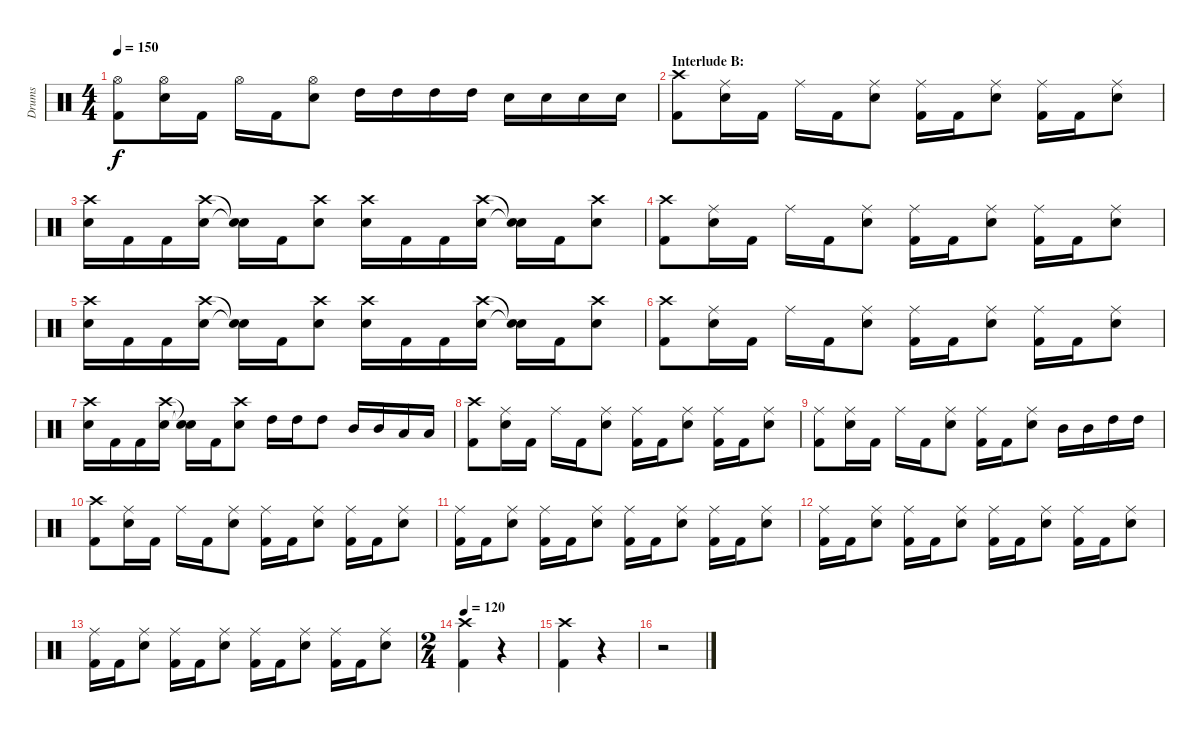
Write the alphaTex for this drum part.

\track ("Drums" "Drums") {instrument percussion}
\staff {score}
\articulation defaults
\ts (4 4)
\tempo 150
\clef neutral
\ks c
("Hi-Hat (open)" "Kick (hit) 2").8{dy f} ("Hi-Hat (open)" "Snare (hit) 2").16 "Kick (hit) 2".16 "Hi-Hat (open)".16 "Kick (hit) 2".16 ("Hi-Hat (open)" "Snare (hit) 2").8 "High Tom (hit)".16 "High Tom (hit)".16 "High Tom (hit)".16 "High Tom (hit)".16 "Snare (hit) 2".16 "Snare (hit) 2".16 "Snare (hit) 2".16 "Snare (hit) 2".16 |
\section ("" "Interlude B:")
("Crash high (hit)" "Kick (hit) 2").8 ("Ride (middle)" "Snare (hit) 2").16 "Kick (hit) 2".16 "Ride (middle)".16 "Kick (hit) 2".16 ("Ride (middle)" "Snare (hit) 2").8 ("Ride (middle)" "Kick (hit) 2").16 "Kick (hit) 2".16 ("Ride (middle)" "Snare (hit) 2").8 ("Ride (middle)" "Kick (hit) 2").16 "Kick (hit) 2".16 ("Ride (middle)" "Snare (hit) 2").8 |
("Crash high (hit)" "Snare (hit) 2").16 "Kick (hit) 2".16 "Kick (hit) 2".16 ("Crash high (hit)" "Snare (hit) 2").16 ("Snare (hit)"{t} "Snare (hit)"{t}).16 "Kick (hit) 2".16 ("Crash high (hit)" "Snare (hit) 2").8 ("Crash high (hit)" "Snare (hit) 2").16 "Kick (hit) 2".16 "Kick (hit) 2".16 ("Crash high (hit)" "Snare (hit) 2").16 ("Snare (hit)"{t} "Snare (hit)"{t}).16 "Kick (hit) 2".16 ("Crash high (hit)" "Snare (hit) 2").8 |
("Crash high (hit)" "Kick (hit) 2").8 ("Ride (middle)" "Snare (hit) 2").16 "Kick (hit) 2".16 "Ride (middle)".16 "Kick (hit) 2".16 ("Ride (middle)" "Snare (hit) 2").8 ("Ride (middle)" "Kick (hit) 2").16 "Kick (hit) 2".16 ("Ride (middle)" "Snare (hit) 2").8 ("Ride (middle)" "Kick (hit) 2").16 "Kick (hit) 2".16 ("Ride (middle)" "Snare (hit) 2").8 |
("Crash high (hit)" "Snare (hit) 2").16 "Kick (hit) 2".16 "Kick (hit) 2".16 ("Crash high (hit)" "Snare (hit) 2").16 ("Snare (hit)"{t} "Snare (hit)"{t}).16 "Kick (hit) 2".16 ("Crash high (hit)" "Snare (hit) 2").8 ("Crash high (hit)" "Snare (hit) 2").16 "Kick (hit) 2".16 "Kick (hit) 2".16 ("Crash high (hit)" "Snare (hit) 2").16 ("Snare (hit)"{t} "Snare (hit)"{t}).16 "Kick (hit) 2".16 ("Crash high (hit)" "Snare (hit) 2").8 |
("Crash high (hit)" "Kick (hit) 2").8 ("Ride (middle)" "Snare (hit) 2").16 "Kick (hit) 2".16 "Ride (middle)".16 "Kick (hit) 2".16 ("Ride (middle)" "Snare (hit) 2").8 ("Ride (middle)" "Kick (hit) 2").16 "Kick (hit) 2".16 ("Ride (middle)" "Snare (hit) 2").8 ("Ride (middle)" "Kick (hit) 2").16 "Kick (hit) 2".16 ("Ride (middle)" "Snare (hit) 2").8 |
("Crash high (hit)" "Snare (hit) 2").16 "Kick (hit) 2".16 "Kick (hit) 2".16 ("Crash high (hit)" "Snare (hit) 2").16 ("Snare (hit)"{t} "Snare (hit)"{t}).16 "Kick (hit) 2".16 ("Crash high (hit)" "Snare (hit) 2").8 "High Tom (hit)".16 "High Tom (hit)".16 "High Tom (hit)".8 "Mid Tom (hit)".16 "Mid Tom (hit)".16 "Low Tom (hit)".16 "Low Tom (hit)".16 |
("Crash high (hit)" "Kick (hit) 2").8 ("Ride (middle)" "Snare (hit) 2").16 "Kick (hit) 2".16 "Ride (middle)".16 "Kick (hit) 2".16 ("Ride (middle)" "Snare (hit) 2").8 ("Ride (middle)" "Kick (hit) 2").16 "Kick (hit) 2".16 ("Ride (middle)" "Snare (hit) 2").8 ("Ride (middle)" "Kick (hit) 2").16 "Kick (hit) 2".16 ("Ride (middle)" "Snare (hit) 2").8 |
("Ride (middle)" "Kick (hit) 2").8 ("Ride (middle)" "Snare (hit) 2").16 "Kick (hit) 2".16 "Ride (middle)".16 "Kick (hit) 2".16 ("Ride (middle)" "Snare (hit) 2").8 ("Ride (middle)" "Kick (hit) 2").16 "Kick (hit) 2".16 ("Ride (middle)" "Snare (hit) 2").8 "Mid Tom (hit)".16 "Mid Tom (hit)".16 "High Tom (hit)".16 "High Tom (hit)".16 |
("Crash high (hit)" "Kick (hit) 2").8 ("Ride (middle)" "Snare (hit) 2").16 "Kick (hit) 2".16 "Ride (middle)".16 "Kick (hit) 2".16 ("Ride (middle)" "Snare (hit) 2").8 ("Ride (middle)" "Kick (hit) 2").16 "Kick (hit) 2".16 ("Ride (middle)" "Snare (hit) 2").8 ("Ride (middle)" "Kick (hit) 2").16 "Kick (hit) 2".16 ("Ride (middle)" "Snare (hit) 2").8 |
("Ride (middle)" "Kick (hit) 2").16 "Kick (hit) 2".16 ("Ride (middle)" "Snare (hit) 2").8 ("Ride (middle)" "Kick (hit) 2").16 "Kick (hit) 2".16 ("Ride (middle)" "Snare (hit) 2").8 ("Ride (middle)" "Kick (hit) 2").16 "Kick (hit) 2".16 ("Ride (middle)" "Snare (hit) 2").8 ("Ride (middle)" "Kick (hit) 2").16 "Kick (hit) 2".16 ("Ride (middle)" "Snare (hit) 2").8 |
("Ride (middle)" "Kick (hit) 2").16 "Kick (hit) 2".16 ("Ride (middle)" "Snare (hit) 2").8 ("Ride (middle)" "Kick (hit) 2").16 "Kick (hit) 2".16 ("Ride (middle)" "Snare (hit) 2").8 ("Ride (middle)" "Kick (hit) 2").16 "Kick (hit) 2".16 ("Ride (middle)" "Snare (hit) 2").8 ("Ride (middle)" "Kick (hit) 2").16 "Kick (hit) 2".16 ("Ride (middle)" "Snare (hit) 2").8 |
("Ride (middle)" "Kick (hit) 2").16 "Kick (hit) 2".16 ("Ride (middle)" "Snare (hit) 2").8 ("Ride (middle)" "Kick (hit) 2").16 "Kick (hit) 2".16 ("Ride (middle)" "Snare (hit) 2").8 ("Ride (middle)" "Kick (hit) 2").16 "Kick (hit) 2".16 ("Ride (middle)" "Snare (hit) 2").8 ("Ride (middle)" "Kick (hit) 2").16 "Kick (hit) 2".16 ("Ride (middle)" "Snare (hit) 2").8 |
\ts (2 4)
\tempo 120
("Crash high (hit)" "Kick (hit) 2").4 r.4 |
("Crash high (hit)" "Kick (hit) 2").4 r.4 |
r.2
